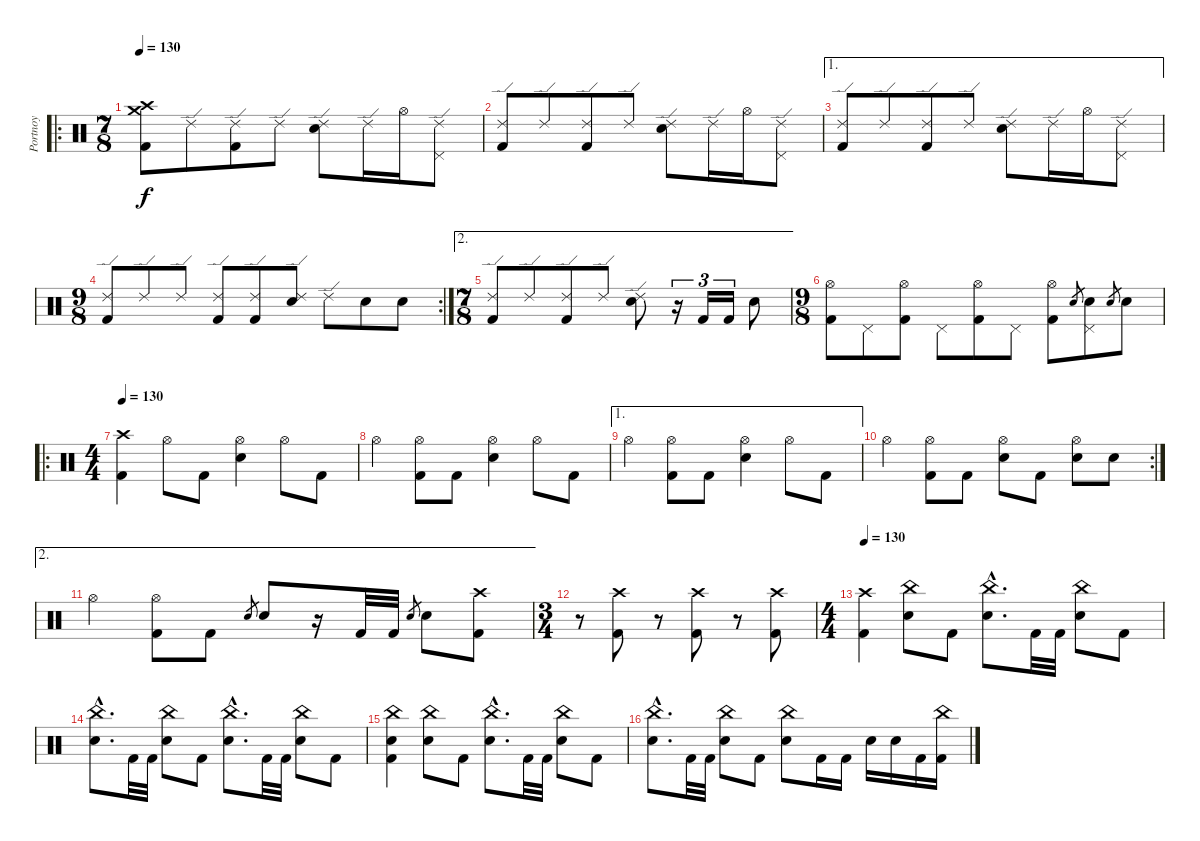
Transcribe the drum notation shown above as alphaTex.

\track ("Portnoy" "Portnoy") {instrument percussion}
\staff {score}
\articulation defaults
\ro
\ts (7 8)
\tempo 130
\clef neutral
\ks c
("Crash high (hit)" "Crash medium (hit)" "Kick (hit) 2").8{dy f} "Ride (edge) 2".8 ("Ride (edge) 2" "Kick (hit) 2").8 "Ride (edge) 2".8 ("Ride (edge) 2" "Electric Snare (hit)").8 "Ride (edge) 2".16 "Hi-Hat (open)".16 ("Ride (edge) 2" "Pedal Hi-Hat (hit)").8 |
("Ride (edge) 2" "Kick (hit) 2").8 "Ride (edge) 2".8 ("Ride (edge) 2" "Kick (hit) 2").8 "Ride (edge) 2".8 ("Ride (edge) 2" "Electric Snare (hit)").8 "Ride (edge) 2".16 "Hi-Hat (open)".16 ("Ride (edge) 2" "Pedal Hi-Hat (hit)").8 |
\ae 1
("Ride (edge) 2" "Kick (hit) 2").8 "Ride (edge) 2".8 ("Ride (edge) 2" "Kick (hit) 2").8 "Ride (edge) 2".8 ("Ride (edge) 2" "Electric Snare (hit)").8 "Ride (edge) 2".16 "Hi-Hat (open)".16 ("Ride (edge) 2" "Pedal Hi-Hat (hit)").8 |
\rc 2
\ts (9 8)
("Ride (edge) 2" "Kick (hit) 2").8 "Ride (edge) 2".8 "Ride (edge) 2".8 ("Ride (edge) 2" "Kick (hit) 2").8 ("Ride (edge) 2" "Kick (hit) 2").8 ("Ride (edge) 2" "Electric Snare (hit)").8 "Ride (edge) 2".8 "Electric Snare (hit)".8 "Electric Snare (hit)".8 |
\ae 2
\ts (7 8)
("Ride (edge) 2" "Kick (hit) 2").8 "Ride (edge) 2".8 ("Ride (edge) 2" "Kick (hit) 2").8 "Ride (edge) 2".8 ("Ride (edge) 2" "Electric Snare (hit)").8 r.16{tu (3 2)} "Kick (hit) 2".16{tu (3 2)} "Kick (hit) 2".16{tu (3 2)} "Electric Snare (hit)".8 |
\ts (9 8)
("Hi-Hat (open)" "Kick (hit) 2").8 "Pedal Hi-Hat (hit)".8 ("Hi-Hat (open)" "Kick (hit) 2").8 "Pedal Hi-Hat (hit)".8 ("Hi-Hat (open)" "Kick (hit) 2").8 "Pedal Hi-Hat (hit)".8 ("Hi-Hat (open)" "Kick (hit) 2").8 "Electric Snare (hit)".8{gr} ("Electric Snare (hit)" "Pedal Hi-Hat (hit)").8 "Electric Snare (hit)".8{gr} "Electric Snare (hit)".8 |
\ro
\ts (4 4)
\tempo 130
("Crash high (hit)" "Kick (hit) 2").4 "Hi-Hat (open)".8 "Kick (hit) 2".8 ("Hi-Hat (open)" "Electric Snare (hit)").4 "Hi-Hat (open)".8 "Kick (hit) 2".8 |
"Hi-Hat (open)".4 ("Hi-Hat (open)" "Kick (hit) 2").8 "Kick (hit) 2".8 ("Hi-Hat (open)" "Electric Snare (hit)").4 "Hi-Hat (open)".8 "Kick (hit) 2".8 |
\ae 1 "Hi-Hat (open)".4
("Hi-Hat (open)" "Kick (hit) 2").8 "Kick (hit) 2".8 ("Hi-Hat (open)" "Electric Snare (hit)").4 "Hi-Hat (open)".8 "Kick (hit) 2".8 |
\rc 2 "Hi-Hat (open)".4
("Hi-Hat (open)" "Kick (hit) 2").8 "Kick (hit) 2".8 ("Hi-Hat (open)" "Electric Snare (hit)").8 "Kick (hit) 2".8 ("Hi-Hat (open)" "Electric Snare (hit)").8 "Electric Snare (hit)".8 |
\ae 2 "Hi-Hat (open)".4
("Hi-Hat (open)" "Kick (hit) 2").8 "Kick (hit) 2".8 "Electric Snare (hit)".8{gr} "Electric Snare (hit)".8 r.16 "Kick (hit) 2".32 "Kick (hit) 2".32 "Electric Snare (hit)".8{gr} "Electric Snare (hit)".8 ("Crash high (hit)" "Kick (hit) 2").8 |
\ts (3 4)
r.8{volume 0} ("Crash high (hit)" "Kick (hit) 2").8{volume 16} r.8{volume 0} ("Crash high (hit)" "Kick (hit) 2").8{volume 16} r.8{volume 0} ("Crash high (hit)" "Kick (hit) 2").8{volume 16} |
\ts (4 4)
\tempo 130
("Crash high (hit)" "Kick (hit) 2").4 ("China (hit)" "Electric Snare (hit)").8 "Kick (hit) 2".8 ("China (hit)"{hac} "Electric Snare (hit)"{hac}).8{d} "Kick (hit) 2".32 "Kick (hit) 2".32 ("China (hit)" "Electric Snare (hit)").8 "Kick (hit) 2".8 |
("China (hit)"{hac} "Electric Snare (hit)"{hac}).8{d} "Kick (hit) 2".32 "Kick (hit) 2".32 ("China (hit)" "Electric Snare (hit)").8 "Kick (hit) 2".8 ("China (hit)"{hac} "Electric Snare (hit)"{hac}).8{d} "Kick (hit) 2".32 "Kick (hit) 2".32 ("China (hit)" "Electric Snare (hit)").8 "Kick (hit) 2".8 |
("China (hit)" "Electric Snare (hit)" "Kick (hit) 2").4 ("China (hit)" "Electric Snare (hit)").8 "Kick (hit) 2".8 ("China (hit)"{hac} "Electric Snare (hit)"{hac}).8{d} "Kick (hit) 2".32 "Kick (hit) 2".32 ("China (hit)" "Electric Snare (hit)").8 "Kick (hit) 2".8 |
("China (hit)"{hac} "Electric Snare (hit)"{hac}).8{d} "Kick (hit) 2".32 "Kick (hit) 2".32 ("China (hit)" "Electric Snare (hit)").8 "Kick (hit) 2".8 ("China (hit)" "Electric Snare (hit)").8 "Kick (hit) 2".16 "Kick (hit) 2".16 "Electric Snare (hit)".16 "Electric Snare (hit)".16 "Kick (hit) 2".16 ("China (hit)" "Kick (hit) 2").16
